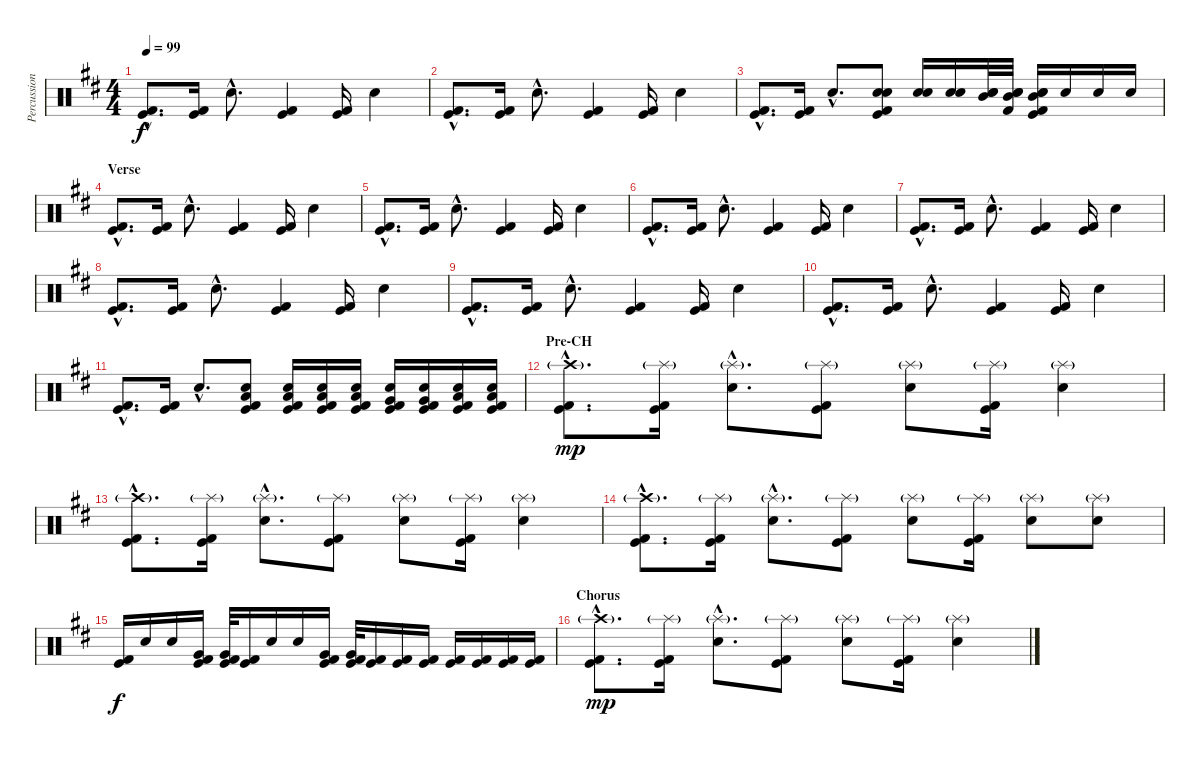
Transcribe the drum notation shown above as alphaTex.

\track ("Percussion" "Percussion") {instrument percussion}
\staff {score}
\articulation defaults
\ts (4 4)
\tempo 99
\clef neutral
\ks d
("Kick (hit)"{hac} "Kick (hit) 2"{hac}).8{d dy f} ("Kick (hit)" "Kick (hit) 2").16 "Electric Snare (hit)"{hac}.8{d} ("Kick (hit)" "Kick (hit) 2").4 ("Kick (hit)" "Kick (hit) 2").16 "Electric Snare (hit)".4 |
("Kick (hit)"{hac} "Kick (hit) 2"{hac}).8{d} ("Kick (hit)" "Kick (hit) 2").16 "Electric Snare (hit)"{hac}.8{d} ("Kick (hit)" "Kick (hit) 2").4 ("Kick (hit)" "Kick (hit) 2").16 "Electric Snare (hit)".4 |
("Kick (hit)"{hac} "Kick (hit) 2"{hac}).8{d} ("Kick (hit)" "Kick (hit) 2").16 "Electric Snare (hit)"{hac}.8{d} ("Electric Snare (hit)" "Electric Snare (hit)" "Kick (hit)" "Kick (hit) 2").8 ("Electric Snare (hit)" "Electric Snare (hit)").16 ("Electric Snare (hit)" "Electric Snare (hit)").16 ("Mid Tom (hit)" "Electric Snare (hit)" "Electric Snare (hit)").32 ("Mid Tom (hit)" "Electric Snare (hit)" "Electric Snare (hit)" "Kick (hit) 2").32 ("Mid Tom (hit)" "Electric Snare (hit)" "Electric Snare (hit)" "Kick (hit)" "Kick (hit) 2").16 "Electric Snare (hit)".16 "Electric Snare (hit)".16 "Electric Snare (hit)".16 |
\section ("" "Verse")
("Kick (hit)"{hac} "Kick (hit) 2"{hac}).8{d} ("Kick (hit)" "Kick (hit) 2").16 "Electric Snare (hit)"{hac}.8{d} ("Kick (hit)" "Kick (hit) 2").4 ("Kick (hit)" "Kick (hit) 2").16 "Electric Snare (hit)".4 |
("Kick (hit)"{hac} "Kick (hit) 2"{hac}).8{d} ("Kick (hit)" "Kick (hit) 2").16 "Electric Snare (hit)"{hac}.8{d} ("Kick (hit)" "Kick (hit) 2").4 ("Kick (hit)" "Kick (hit) 2").16 "Electric Snare (hit)".4 |
("Kick (hit)"{hac} "Kick (hit) 2"{hac}).8{d} ("Kick (hit)" "Kick (hit) 2").16 "Electric Snare (hit)"{hac}.8{d} ("Kick (hit)" "Kick (hit) 2").4 ("Kick (hit)" "Kick (hit) 2").16 "Electric Snare (hit)".4 |
("Kick (hit)"{hac} "Kick (hit) 2"{hac}).8{d} ("Kick (hit)" "Kick (hit) 2").16 "Electric Snare (hit)"{hac}.8{d} ("Kick (hit)" "Kick (hit) 2").4 ("Kick (hit)" "Kick (hit) 2").16 "Electric Snare (hit)".4 |
("Kick (hit)"{hac} "Kick (hit) 2"{hac}).8{d} ("Kick (hit)" "Kick (hit) 2").16 "Electric Snare (hit)"{hac}.8{d} ("Kick (hit)" "Kick (hit) 2").4 ("Kick (hit)" "Kick (hit) 2").16 "Electric Snare (hit)".4 |
("Kick (hit)"{hac} "Kick (hit) 2"{hac}).8{d} ("Kick (hit)" "Kick (hit) 2").16 "Electric Snare (hit)"{hac}.8{d} ("Kick (hit)" "Kick (hit) 2").4 ("Kick (hit)" "Kick (hit) 2").16 "Electric Snare (hit)".4 |
("Kick (hit)"{hac} "Kick (hit) 2"{hac}).8{d} ("Kick (hit)" "Kick (hit) 2").16 "Electric Snare (hit)"{hac}.8{d} ("Kick (hit)" "Kick (hit) 2").4 ("Kick (hit)" "Kick (hit) 2").16 "Electric Snare (hit)".4 |
("Kick (hit)"{hac} "Kick (hit) 2"{hac}).8{d} ("Kick (hit)" "Kick (hit) 2").16 "Electric Snare (hit)"{hac}.8{d} ("Low Tom (hit)" "Electric Snare (hit)" "Kick (hit)" "Kick (hit) 2").8 ("Low Tom (hit)" "Electric Snare (hit)" "Kick (hit)" "Kick (hit) 2").16 ("Low Tom (hit)" "Electric Snare (hit)" "Kick (hit)" "Kick (hit) 2").16 ("Low Tom (hit)" "Electric Snare (hit)" "Kick (hit)" "Kick (hit) 2").16 ("Very Low Tom (hit)" "Electric Snare (hit)" "Kick (hit)" "Kick (hit) 2").16 ("Very Low Tom (hit)" "Electric Snare (hit)" "Kick (hit)" "Kick (hit) 2").16 ("Low Floor Tom (hit)" "Electric Snare (hit)" "Kick (hit)" "Kick (hit) 2").16 ("Low Floor Tom (hit)" "Electric Snare (hit)" "Kick (hit)" "Kick (hit) 2").16 |
\section ("" "Pre-CH")
("Crash high (hit)"{g hac} "Kick (hit)"{hac} "Kick (hit) 2"{hac}).8{d dy mp} ("Splash (hit)"{g} "Kick (hit)" "Kick (hit) 2").16 ("Splash (hit)"{g hac} "Electric Snare (hit)"{hac}).8{d} ("Splash (hit)"{g} "Kick (hit)" "Kick (hit) 2").8 ("Splash (hit)"{g} "Electric Snare (hit)").8 ("Splash (hit)"{g} "Kick (hit)" "Kick (hit) 2").16 ("Splash (hit)"{g} "Electric Snare (hit)").4 |
("Crash high (hit)"{g hac} "Kick (hit)"{hac} "Kick (hit) 2"{hac}).8{d} ("Splash (hit)"{g} "Kick (hit)" "Kick (hit) 2").16 ("Splash (hit)"{g hac} "Electric Snare (hit)"{hac}).8{d} ("Splash (hit)"{g} "Kick (hit)" "Kick (hit) 2").8 ("Splash (hit)"{g} "Electric Snare (hit)").8 ("Splash (hit)"{g} "Kick (hit)" "Kick (hit) 2").16 ("Splash (hit)"{g} "Electric Snare (hit)").4 |
("Crash high (hit)"{g hac} "Kick (hit)"{hac} "Kick (hit) 2"{hac}).8{d} ("Splash (hit)"{g} "Kick (hit)" "Kick (hit) 2").16 ("Splash (hit)"{g hac} "Electric Snare (hit)"{hac}).8{d} ("Splash (hit)"{g} "Kick (hit)" "Kick (hit) 2").8 ("Splash (hit)"{g} "Electric Snare (hit)").8 ("Splash (hit)"{g} "Kick (hit)" "Kick (hit) 2").16 ("Splash (hit)"{g} "Electric Snare (hit)").8 ("Splash (hit)"{g} "Electric Snare (hit)").8 |
("Kick (hit)" "Kick (hit) 2").16{dy f} "Electric Snare (hit)".16 "Electric Snare (hit)".16 ("Very Low Tom (hit)" "Kick (hit)" "Kick (hit) 2").16 ("Very Low Tom (hit)" "Kick (hit)" "Kick (hit) 2").32 ("Kick (hit)" "Kick (hit) 2").16 "Electric Snare (hit)".16 "Electric Snare (hit)".16 ("Very Low Tom (hit)" "Kick (hit)" "Kick (hit) 2").16 ("Very Low Tom (hit)" "Kick (hit)" "Kick (hit) 2").32 ("Kick (hit)" "Kick (hit) 2").16 ("Kick (hit)" "Kick (hit) 2").16 ("Kick (hit)" "Kick (hit) 2").16 ("Kick (hit)" "Kick (hit) 2").16 ("Kick (hit)" "Kick (hit) 2").16 ("Kick (hit)" "Kick (hit) 2").16 ("Kick (hit)" "Kick (hit) 2").16 |
\section ("" "Chorus")
("Crash high (hit)"{g hac} "Kick (hit)"{hac} "Kick (hit) 2"{hac}).8{d dy mp} ("Splash (hit)"{g} "Kick (hit)" "Kick (hit) 2").16 ("Splash (hit)"{g hac} "Electric Snare (hit)"{hac}).8{d} ("Splash (hit)"{g} "Kick (hit)" "Kick (hit) 2").8 ("Splash (hit)"{g} "Electric Snare (hit)").8 ("Splash (hit)"{g} "Kick (hit)" "Kick (hit) 2").16 ("Splash (hit)"{g} "Electric Snare (hit)").4
